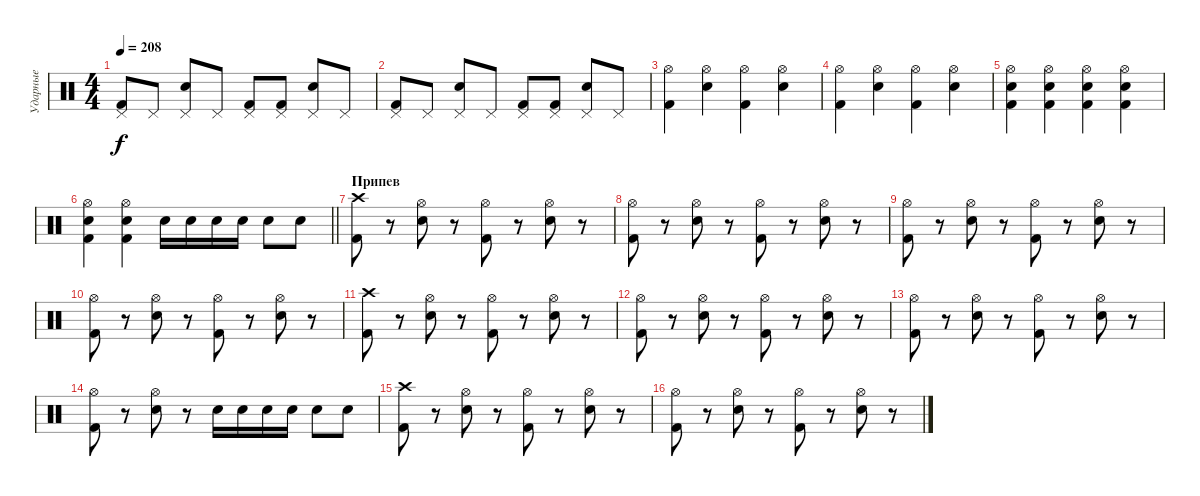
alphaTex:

\track ("Ударные" "Ударные") {instrument percussion}
\staff {score}
\articulation defaults
\ts (4 4)
\tempo 208
\clef neutral
\ks c
("Pedal Hi-Hat (hit)" "Kick (hit) 2").8{dy f} "Pedal Hi-Hat (hit)".8 ("Pedal Hi-Hat (hit)" "Electric Snare (hit)").8 "Pedal Hi-Hat (hit)".8 ("Pedal Hi-Hat (hit)" "Kick (hit) 2").8 ("Pedal Hi-Hat (hit)" "Kick (hit) 2").8 ("Pedal Hi-Hat (hit)" "Electric Snare (hit)").8 "Pedal Hi-Hat (hit)".8 |
("Pedal Hi-Hat (hit)" "Kick (hit) 2").8 "Pedal Hi-Hat (hit)".8 ("Pedal Hi-Hat (hit)" "Electric Snare (hit)").8 "Pedal Hi-Hat (hit)".8 ("Pedal Hi-Hat (hit)" "Kick (hit) 2").8 ("Pedal Hi-Hat (hit)" "Kick (hit) 2").8 ("Pedal Hi-Hat (hit)" "Electric Snare (hit)").8 "Pedal Hi-Hat (hit)".8 |
("Hi-Hat (open)" "Kick (hit) 2").4 ("Hi-Hat (open)" "Electric Snare (hit)").4 ("Kick (hit) 2" "Hi-Hat (open)").4 ("Electric Snare (hit)" "Hi-Hat (open)").4 |
("Hi-Hat (open)" "Kick (hit) 2").4 ("Hi-Hat (open)" "Electric Snare (hit)").4 ("Kick (hit) 2" "Hi-Hat (open)").4 ("Electric Snare (hit)" "Hi-Hat (open)").4 |
("Hi-Hat (open)" "Electric Snare (hit)" "Kick (hit) 2").4 ("Hi-Hat (open)" "Electric Snare (hit)" "Kick (hit) 2").4 ("Hi-Hat (open)" "Electric Snare (hit)" "Kick (hit) 2").4 ("Hi-Hat (open)" "Electric Snare (hit)" "Kick (hit) 2").4 |
\barLineRight lightlight
("Hi-Hat (open)" "Electric Snare (hit)" "Kick (hit) 2").4 ("Hi-Hat (open)" "Electric Snare (hit)" "Kick (hit) 2").4 "Electric Snare (hit)".16 "Electric Snare (hit)".16 "Electric Snare (hit)".16 "Electric Snare (hit)".16 "Electric Snare (hit)".8 "Electric Snare (hit)".8 |
\section ("" "Припев")
("Crash high (hit)" "Kick (hit) 2").8 r.8 ("Hi-Hat (open)" "Electric Snare (hit)").8 r.8 ("Hi-Hat (open)" "Kick (hit) 2").8 r.8 ("Hi-Hat (open)" "Electric Snare (hit)").8 r.8 |
("Hi-Hat (open)" "Kick (hit) 2").8 r.8 ("Hi-Hat (open)" "Electric Snare (hit)").8 r.8 ("Hi-Hat (open)" "Kick (hit) 2").8 r.8 ("Hi-Hat (open)" "Electric Snare (hit)").8 r.8 |
("Hi-Hat (open)" "Kick (hit) 2").8 r.8 ("Hi-Hat (open)" "Electric Snare (hit)").8 r.8 ("Hi-Hat (open)" "Kick (hit) 2").8 r.8 ("Hi-Hat (open)" "Electric Snare (hit)").8 r.8 |
("Hi-Hat (open)" "Kick (hit) 2").8 r.8 ("Hi-Hat (open)" "Electric Snare (hit)").8 r.8 ("Hi-Hat (open)" "Kick (hit) 2").8 r.8 ("Hi-Hat (open)" "Electric Snare (hit)").8 r.8 |
("Crash high (hit)" "Kick (hit) 2").8 r.8 ("Hi-Hat (open)" "Electric Snare (hit)").8 r.8 ("Hi-Hat (open)" "Kick (hit) 2").8 r.8 ("Hi-Hat (open)" "Electric Snare (hit)").8 r.8 |
("Hi-Hat (open)" "Kick (hit) 2").8 r.8 ("Hi-Hat (open)" "Electric Snare (hit)").8 r.8 ("Hi-Hat (open)" "Kick (hit) 2").8 r.8 ("Hi-Hat (open)" "Electric Snare (hit)").8 r.8 |
("Hi-Hat (open)" "Kick (hit) 2").8 r.8 ("Hi-Hat (open)" "Electric Snare (hit)").8 r.8 ("Hi-Hat (open)" "Kick (hit) 2").8 r.8 ("Hi-Hat (open)" "Electric Snare (hit)").8 r.8 |
("Hi-Hat (open)" "Kick (hit) 2").8 r.8 ("Hi-Hat (open)" "Electric Snare (hit)").8 r.8 "Electric Snare (hit)".16 "Electric Snare (hit)".16 "Electric Snare (hit)".16 "Electric Snare (hit)".16 "Electric Snare (hit)".8 "Electric Snare (hit)".8 |
("Crash high (hit)" "Kick (hit) 2").8 r.8 ("Hi-Hat (open)" "Electric Snare (hit)").8 r.8 ("Hi-Hat (open)" "Kick (hit) 2").8 r.8 ("Hi-Hat (open)" "Electric Snare (hit)").8 r.8 |
("Hi-Hat (open)" "Kick (hit) 2").8 r.8 ("Hi-Hat (open)" "Electric Snare (hit)").8 r.8 ("Hi-Hat (open)" "Kick (hit) 2").8 r.8 ("Hi-Hat (open)" "Electric Snare (hit)").8 r.8
